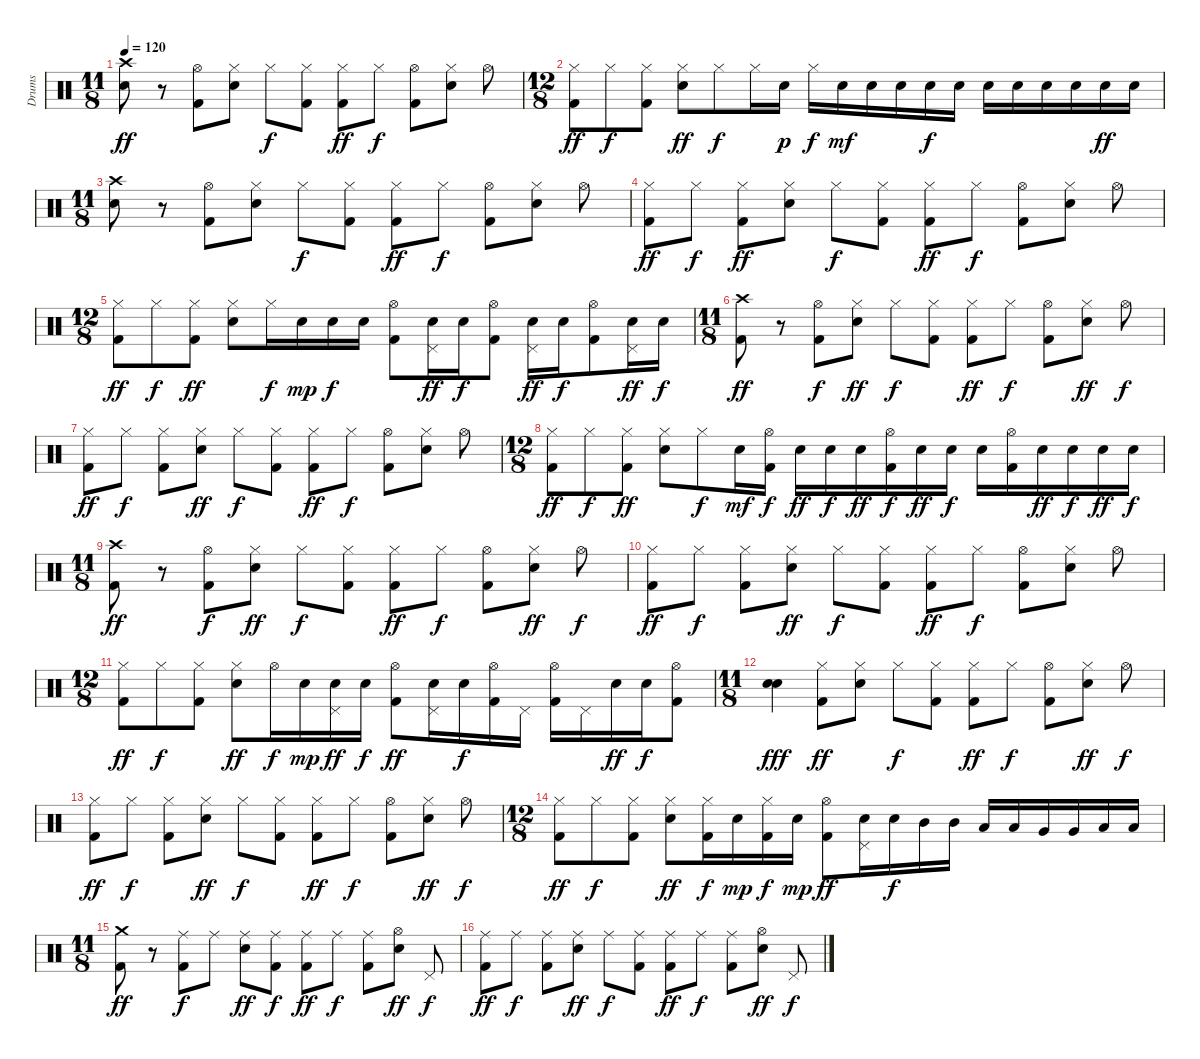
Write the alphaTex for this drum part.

\track ("Drums" "Drums") {instrument percussion}
\staff {score}
\articulation defaults
\ts (11 8)
\tempo 120
\clef neutral
\ks c
("Electric Snare (hit)" "Crash high (hit)").8{dy ff} r.8 ("Kick (hit) 2" "Hi-Hat (open)").8 ("Electric Snare (hit)" "Hi-Hat (closed)").8 "Hi-Hat (closed)".8{dy f} ("Kick (hit) 2" "Hi-Hat (closed)").8 ("Kick (hit) 2" "Hi-Hat (closed)").8{dy ff} "Hi-Hat (closed)".8{dy f} ("Kick (hit) 2" "Hi-Hat (open)").8 ("Electric Snare (hit)" "Hi-Hat (closed)").8 "Hi-Hat (open)".8 |
\ts (12 8)
("Kick (hit) 2" "Hi-Hat (closed)").8{dy ff} "Hi-Hat (closed)".8{dy f} ("Kick (hit) 2" "Hi-Hat (closed)").8 ("Electric Snare (hit)" "Hi-Hat (closed)").8{dy ff} "Hi-Hat (closed)".8{dy f} "Hi-Hat (closed)".16 "Electric Snare (hit)".16{dy p} "Hi-Hat (closed)".16{dy f} "Electric Snare (hit)".16{dy mf} "Electric Snare (hit)".16 "Electric Snare (hit)".16 "Electric Snare (hit)".16{dy f} "Electric Snare (hit)".16 "Electric Snare (hit)".16 "Electric Snare (hit)".16 "Electric Snare (hit)".16 "Electric Snare (hit)".16 "Electric Snare (hit)".16{dy ff} "Electric Snare (hit)".16 |
\ts (11 8)
("Electric Snare (hit)" "Crash high (hit)").8 r.8 ("Kick (hit) 2" "Hi-Hat (open)").8 ("Electric Snare (hit)" "Hi-Hat (closed)").8 "Hi-Hat (closed)".8{dy f} ("Kick (hit) 2" "Hi-Hat (closed)").8 ("Kick (hit) 2" "Hi-Hat (closed)").8{dy ff} "Hi-Hat (closed)".8{dy f} ("Kick (hit) 2" "Hi-Hat (open)").8 ("Electric Snare (hit)" "Hi-Hat (closed)").8 "Hi-Hat (open)".8 |
("Kick (hit) 2" "Hi-Hat (closed)").8{dy ff} "Hi-Hat (closed)".8{dy f} ("Kick (hit) 2" "Hi-Hat (closed)").8{dy ff} ("Electric Snare (hit)" "Hi-Hat (closed)").8 "Hi-Hat (closed)".8{dy f} ("Kick (hit) 2" "Hi-Hat (closed)").8 ("Kick (hit) 2" "Hi-Hat (closed)").8{dy ff} "Hi-Hat (closed)".8{dy f} ("Kick (hit) 2" "Hi-Hat (open)").8 ("Electric Snare (hit)" "Hi-Hat (closed)").8 "Hi-Hat (open)".8 |
\ts (12 8)
("Kick (hit) 2" "Hi-Hat (closed)").8{dy ff} "Hi-Hat (closed)".8{dy f} ("Kick (hit) 2" "Hi-Hat (closed)").8{dy ff} ("Electric Snare (hit)" "Hi-Hat (closed)").8 "Hi-Hat (closed)".16{dy f} "Electric Snare (hit)".16{dy mp} "Electric Snare (hit)".16{dy f} "Electric Snare (hit)".16 ("Kick (hit) 2" "Hi-Hat (open)").8 ("Electric Snare (hit)" "Pedal Hi-Hat (hit)").16{dy ff} "Electric Snare (hit)".16{dy f} ("Kick (hit) 2" "Hi-Hat (open)").8 ("Electric Snare (hit)" "Pedal Hi-Hat (hit)").16{dy ff} "Electric Snare (hit)".16{dy f} ("Kick (hit) 2" "Hi-Hat (open)").8 ("Electric Snare (hit)" "Pedal Hi-Hat (hit)").16{dy ff} "Electric Snare (hit)".16{dy f} |
\ts (11 8)
("Kick (hit) 2" "Crash high (hit)").8{dy ff} r.8 ("Kick (hit) 2" "Hi-Hat (open)").8{dy f} ("Electric Snare (hit)" "Hi-Hat (closed)").8{dy ff} "Hi-Hat (closed)".8{dy f} ("Kick (hit) 2" "Hi-Hat (closed)").8 ("Kick (hit) 2" "Hi-Hat (closed)").8{dy ff} "Hi-Hat (closed)".8{dy f} ("Kick (hit) 2" "Hi-Hat (open)").8 ("Electric Snare (hit)" "Hi-Hat (closed)").8{dy ff} "Hi-Hat (open)".8{dy f} |
("Kick (hit) 2" "Hi-Hat (closed)").8{dy ff} "Hi-Hat (closed)".8{dy f} ("Kick (hit) 2" "Hi-Hat (closed)").8 ("Electric Snare (hit)" "Hi-Hat (closed)").8{dy ff} "Hi-Hat (closed)".8{dy f} ("Kick (hit) 2" "Hi-Hat (closed)").8 ("Kick (hit) 2" "Hi-Hat (closed)").8{dy ff} "Hi-Hat (closed)".8{dy f} ("Kick (hit) 2" "Hi-Hat (open)").8 ("Electric Snare (hit)" "Hi-Hat (closed)").8 "Hi-Hat (open)".8 |
\ts (12 8)
("Kick (hit) 2" "Hi-Hat (closed)").8{dy ff} "Hi-Hat (closed)".8{dy f} ("Kick (hit) 2" "Hi-Hat (closed)").8{dy ff} ("Electric Snare (hit)" "Hi-Hat (closed)").8 "Hi-Hat (closed)".8{dy f} "Electric Snare (hit)".16{dy mf} ("Kick (hit) 2" "Hi-Hat (open)").16{dy f} "Electric Snare (hit)".16{dy ff} "Electric Snare (hit)".16{dy f} "Electric Snare (hit)".16{dy ff} ("Kick (hit) 2" "Hi-Hat (open)").16{dy f} "Electric Snare (hit)".16{dy ff} "Electric Snare (hit)".16{dy f} "Electric Snare (hit)".16 ("Kick (hit) 2" "Hi-Hat (open)").16 "Electric Snare (hit)".16{dy ff} "Electric Snare (hit)".16{dy f} "Electric Snare (hit)".16{dy ff} "Electric Snare (hit)".16{dy f} |
\ts (11 8)
("Kick (hit) 2" "Crash high (hit)").8{dy ff} r.8 ("Kick (hit) 2" "Hi-Hat (open)").8{dy f} ("Electric Snare (hit)" "Hi-Hat (closed)").8{dy ff} "Hi-Hat (closed)".8{dy f} ("Kick (hit) 2" "Hi-Hat (closed)").8 ("Kick (hit) 2" "Hi-Hat (closed)").8{dy ff} "Hi-Hat (closed)".8{dy f} ("Kick (hit) 2" "Hi-Hat (open)").8 ("Electric Snare (hit)" "Hi-Hat (closed)").8{dy ff} "Hi-Hat (open)".8{dy f} |
("Kick (hit) 2" "Hi-Hat (closed)").8{dy ff} "Hi-Hat (closed)".8{dy f} ("Kick (hit) 2" "Hi-Hat (closed)").8 ("Electric Snare (hit)" "Hi-Hat (closed)").8{dy ff} "Hi-Hat (closed)".8{dy f} ("Kick (hit) 2" "Hi-Hat (closed)").8 ("Kick (hit) 2" "Hi-Hat (closed)").8{dy ff} "Hi-Hat (closed)".8{dy f} ("Kick (hit) 2" "Hi-Hat (open)").8 ("Electric Snare (hit)" "Hi-Hat (closed)").8 "Hi-Hat (open)".8 |
\ts (12 8)
("Kick (hit) 2" "Hi-Hat (closed)").8{dy ff} "Hi-Hat (closed)".8{dy f} ("Kick (hit) 2" "Hi-Hat (closed)").8 ("Electric Snare (hit)" "Hi-Hat (closed)").8{dy ff} "Hi-Hat (open)".16{dy f} "Electric Snare (hit)".16{dy mp} ("Electric Snare (hit)" "Pedal Hi-Hat (hit)").16{dy ff} "Electric Snare (hit)".16{dy f} ("Kick (hit) 2" "Hi-Hat (open)").8{dy ff} ("Electric Snare (hit)" "Pedal Hi-Hat (hit)").16 "Electric Snare (hit)".16{dy f} ("Kick (hit) 2" "Hi-Hat (open)").16 "Pedal Hi-Hat (hit)".16 ("Kick (hit) 2" "Hi-Hat (open)").16 "Pedal Hi-Hat (hit)".16 "Electric Snare (hit)".16{dy ff} "Electric Snare (hit)".16{dy f} ("Kick (hit) 2" "Hi-Hat (open)").8 |
\ts (11 8)
("Electric Snare (hit)" "Electric Snare (hit)").4{dy fff} ("Kick (hit) 2" "Hi-Hat (closed)").8{dy ff} ("Electric Snare (hit)" "Hi-Hat (closed)").8 "Hi-Hat (closed)".8{dy f} ("Kick (hit) 2" "Hi-Hat (closed)").8 ("Kick (hit) 2" "Hi-Hat (closed)").8{dy ff} "Hi-Hat (closed)".8{dy f} ("Kick (hit) 2" "Hi-Hat (open)").8 ("Electric Snare (hit)" "Hi-Hat (closed)").8{dy ff} "Hi-Hat (open)".8{dy f} |
("Kick (hit) 2" "Hi-Hat (closed)").8{dy ff} "Hi-Hat (closed)".8{dy f} ("Kick (hit) 2" "Hi-Hat (closed)").8 ("Electric Snare (hit)" "Hi-Hat (closed)").8{dy ff} "Hi-Hat (closed)".8{dy f} ("Kick (hit) 2" "Hi-Hat (closed)").8 ("Kick (hit) 2" "Hi-Hat (closed)").8{dy ff} "Hi-Hat (closed)".8{dy f} ("Kick (hit) 2" "Hi-Hat (open)").8 ("Electric Snare (hit)" "Hi-Hat (closed)").8{dy ff} "Hi-Hat (open)".8{dy f} |
\ts (12 8)
("Kick (hit) 2" "Hi-Hat (closed)").8{dy ff} "Hi-Hat (closed)".8{dy f} ("Kick (hit) 2" "Hi-Hat (closed)").8 ("Electric Snare (hit)" "Hi-Hat (closed)").8{dy ff} ("Kick (hit) 2" "Hi-Hat (closed)").16{dy f} "Electric Snare (hit)".16{dy mp} ("Kick (hit) 2" "Hi-Hat (closed)").16{dy f} "Electric Snare (hit)".16{dy mp} ("Kick (hit) 2" "Hi-Hat (open)").8{dy ff} ("Electric Snare (hit)" "Pedal Hi-Hat (hit)").16 "Electric Snare (hit)".16{dy f} "Mid Tom (hit)".16 "Mid Tom (hit)".16 "Low Tom (hit)".16 "Low Tom (hit)".16 "Very Low Tom (hit)".16 "Very Low Tom (hit)".16 "Low Floor Tom (hit)".16 "Low Floor Tom (hit)".16 |
\ts (11 8)
("Kick (hit) 2" "Crash medium (hit)").8{dy ff} r.8 ("Kick (hit) 2" "Ride (middle)").8{dy f} "Ride (middle)".8 ("Electric Snare (hit)" "Ride (middle)").8{dy ff} ("Kick (hit) 2" "Ride (middle)").8{dy f} ("Kick (hit) 2" "Ride (middle)").8{dy ff} "Ride (middle)".8{dy f} ("Kick (hit) 2" "Ride (middle)").8 ("Electric Snare (hit)" "Hi-Hat (open)").8{dy ff} "Pedal Hi-Hat (hit)".8{dy f} |
("Kick (hit) 2" "Ride (middle)").8{dy ff} "Ride (middle)".8{dy f} ("Kick (hit) 2" "Ride (middle)").8 ("Electric Snare (hit)" "Ride (middle)").8{dy ff} "Ride (middle)".8{dy f} ("Kick (hit) 2" "Ride (middle)").8 ("Kick (hit) 2" "Ride (middle)").8{dy ff} "Ride (middle)".8{dy f} ("Kick (hit) 2" "Ride (middle)").8 ("Electric Snare (hit)" "Hi-Hat (open)").8{dy ff} "Pedal Hi-Hat (hit)".8{dy f}
